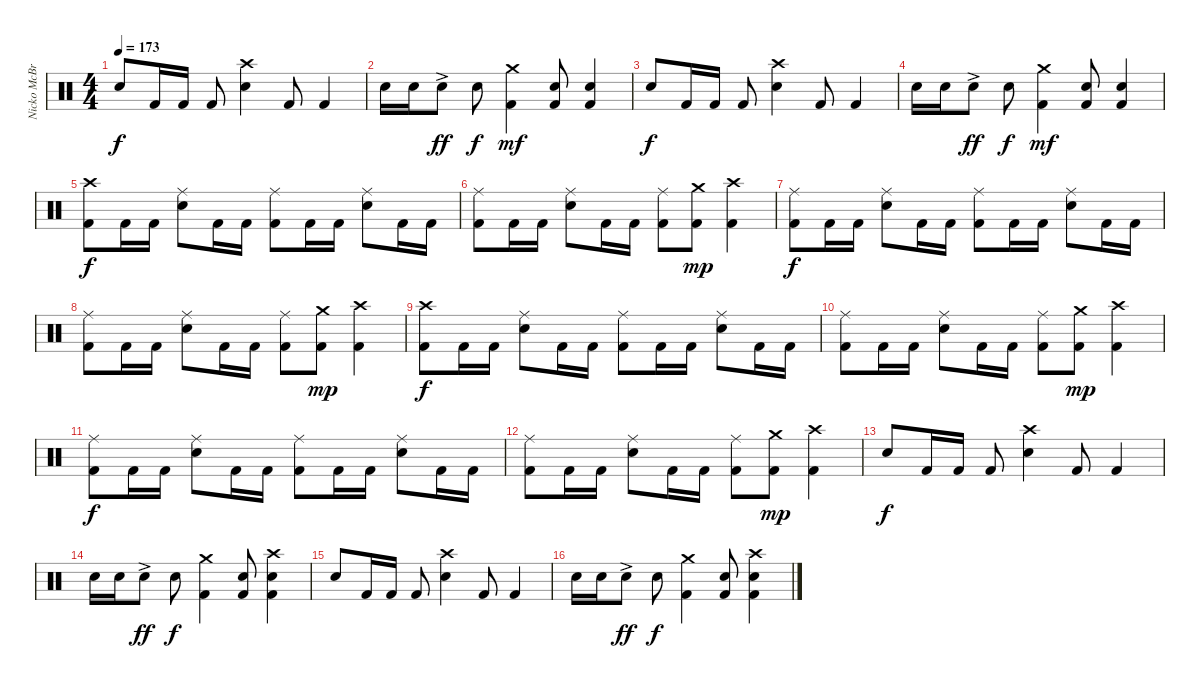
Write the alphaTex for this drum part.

\track ("Nicko McBrain" "Nicko McBr") {instrument percussion}
\staff {score}
\articulation defaults
\ts (4 4)
\tempo 173
\clef neutral
\ks c "Electric Snare (hit)".8{dy f} "Kick (hit) 2".16 "Kick (hit) 2".16 "Kick (hit) 2".8
("Crash high (hit)" "Electric Snare (hit)").4 "Kick (hit) 2".8 "Kick (hit) 2".4 |
"Electric Snare (hit)".16 "Electric Snare (hit)".16 "Electric Snare (hit)"{ac}.8{dy ff} "Electric Snare (hit)".8{dy f} ("Crash medium (hit)" "Kick (hit) 2").4{dy mf} ("Electric Snare (hit)" "Kick (hit) 2").8 ("Electric Snare (hit)" "Kick (hit) 2").4 |
"Electric Snare (hit)".8{dy f} "Kick (hit) 2".16 "Kick (hit) 2".16 "Kick (hit) 2".8 ("Crash high (hit)" "Electric Snare (hit)").4 "Kick (hit) 2".8 "Kick (hit) 2".4 |
"Electric Snare (hit)".16 "Electric Snare (hit)".16 "Electric Snare (hit)"{ac}.8{dy ff} "Electric Snare (hit)".8{dy f} ("Crash medium (hit)" "Kick (hit) 2").4{dy mf} ("Electric Snare (hit)" "Kick (hit) 2").8 ("Electric Snare (hit)" "Kick (hit) 2").4 |
("Crash high (hit)" "Kick (hit) 2").8{dy f} "Kick (hit) 2".16 "Kick (hit) 2".16 ("Ride (middle)" "Electric Snare (hit)").8 "Kick (hit) 2".16 "Kick (hit) 2".16 ("Ride (middle)" "Kick (hit) 2").8 "Kick (hit) 2".16 "Kick (hit) 2".16 ("Ride (middle)" "Electric Snare (hit)").8 "Kick (hit) 2".16 "Kick (hit) 2".16 |
("Ride (middle)" "Kick (hit) 2").8 "Kick (hit) 2".16 "Kick (hit) 2".16 ("Ride (middle)" "Electric Snare (hit)").8 "Kick (hit) 2".16 "Kick (hit) 2".16 ("Ride (middle)" "Kick (hit) 2").8 ("Crash medium (hit)" "Kick (hit) 2").8{dy mp} ("Crash high (hit)" "Kick (hit) 2").4 |
("Ride (middle)" "Kick (hit) 2").8{dy f} "Kick (hit) 2".16 "Kick (hit) 2".16 ("Ride (middle)" "Electric Snare (hit)").8 "Kick (hit) 2".16 "Kick (hit) 2".16 ("Ride (middle)" "Kick (hit) 2").8 "Kick (hit) 2".16 "Kick (hit) 2".16 ("Ride (middle)" "Electric Snare (hit)").8 "Kick (hit) 2".16 "Kick (hit) 2".16 |
("Ride (middle)" "Kick (hit) 2").8 "Kick (hit) 2".16 "Kick (hit) 2".16 ("Ride (middle)" "Electric Snare (hit)").8 "Kick (hit) 2".16 "Kick (hit) 2".16 ("Ride (middle)" "Kick (hit) 2").8 ("Crash medium (hit)" "Kick (hit) 2").8{dy mp} ("Crash high (hit)" "Kick (hit) 2").4 |
("Crash high (hit)" "Kick (hit) 2").8{dy f} "Kick (hit) 2".16 "Kick (hit) 2".16 ("Ride (middle)" "Electric Snare (hit)").8 "Kick (hit) 2".16 "Kick (hit) 2".16 ("Ride (middle)" "Kick (hit) 2").8 "Kick (hit) 2".16 "Kick (hit) 2".16 ("Ride (middle)" "Electric Snare (hit)").8 "Kick (hit) 2".16 "Kick (hit) 2".16 |
("Ride (middle)" "Kick (hit) 2").8 "Kick (hit) 2".16 "Kick (hit) 2".16 ("Ride (middle)" "Electric Snare (hit)").8 "Kick (hit) 2".16 "Kick (hit) 2".16 ("Ride (middle)" "Kick (hit) 2").8 ("Crash medium (hit)" "Kick (hit) 2").8{dy mp} ("Crash high (hit)" "Kick (hit) 2").4 |
("Ride (middle)" "Kick (hit) 2").8{dy f} "Kick (hit) 2".16 "Kick (hit) 2".16 ("Ride (middle)" "Electric Snare (hit)").8 "Kick (hit) 2".16 "Kick (hit) 2".16 ("Ride (middle)" "Kick (hit) 2").8 "Kick (hit) 2".16 "Kick (hit) 2".16 ("Ride (middle)" "Electric Snare (hit)").8 "Kick (hit) 2".16 "Kick (hit) 2".16 |
("Ride (middle)" "Kick (hit) 2").8 "Kick (hit) 2".16 "Kick (hit) 2".16 ("Ride (middle)" "Electric Snare (hit)").8 "Kick (hit) 2".16 "Kick (hit) 2".16 ("Ride (middle)" "Kick (hit) 2").8 ("Crash medium (hit)" "Kick (hit) 2").8{dy mp} ("Crash high (hit)" "Kick (hit) 2").4 |
"Electric Snare (hit)".8{dy f} "Kick (hit) 2".16 "Kick (hit) 2".16 "Kick (hit) 2".8 ("Crash high (hit)" "Electric Snare (hit)").4 "Kick (hit) 2".8 "Kick (hit) 2".4 |
"Electric Snare (hit)".16 "Electric Snare (hit)".16 "Electric Snare (hit)"{ac}.8{dy ff} "Electric Snare (hit)".8{dy f} ("Crash medium (hit)" "Kick (hit) 2").4 ("Electric Snare (hit)" "Kick (hit) 2").8 ("Crash high (hit)" "Electric Snare (hit)" "Kick (hit) 2").4 |
"Electric Snare (hit)".8 "Kick (hit) 2".16 "Kick (hit) 2".16 "Kick (hit) 2".8 ("Crash high (hit)" "Electric Snare (hit)").4 "Kick (hit) 2".8 "Kick (hit) 2".4 |
"Electric Snare (hit)".16 "Electric Snare (hit)".16 "Electric Snare (hit)"{ac}.8{dy ff} "Electric Snare (hit)".8{dy f} ("Crash medium (hit)" "Kick (hit) 2").4 ("Electric Snare (hit)" "Kick (hit) 2").8 ("Crash high (hit)" "Electric Snare (hit)" "Kick (hit) 2").4
